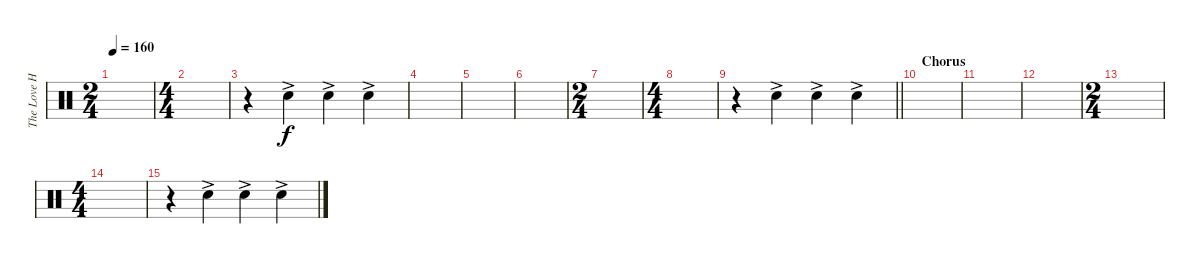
\track ("The Love Haters (Hand Clap)(Drums)" "The Love H") {instrument percussion}
\staff {score}
\articulation defaults
\ts (2 4)
\tempo 160
\clef neutral
\ks c
|
\ts (4 4)
|
r.4 "Hand Clap (hit)"{ac}.4 "Hand Clap (hit)"{ac}.4 "Hand Clap (hit)"{ac}.4 |
|
|
|
\ts (2 4)
|
\ts (4 4)
|
\barLineRight lightlight
r.4 "Hand Clap (hit)"{ac}.4 "Hand Clap (hit)"{ac}.4 "Hand Clap (hit)"{ac}.4 |
\section ("" "Chorus")
|
|
|
\ts (2 4)
|
\ts (4 4)
|
r.4 "Hand Clap (hit)"{ac}.4 "Hand Clap (hit)"{ac}.4 "Hand Clap (hit)"{ac}.4
